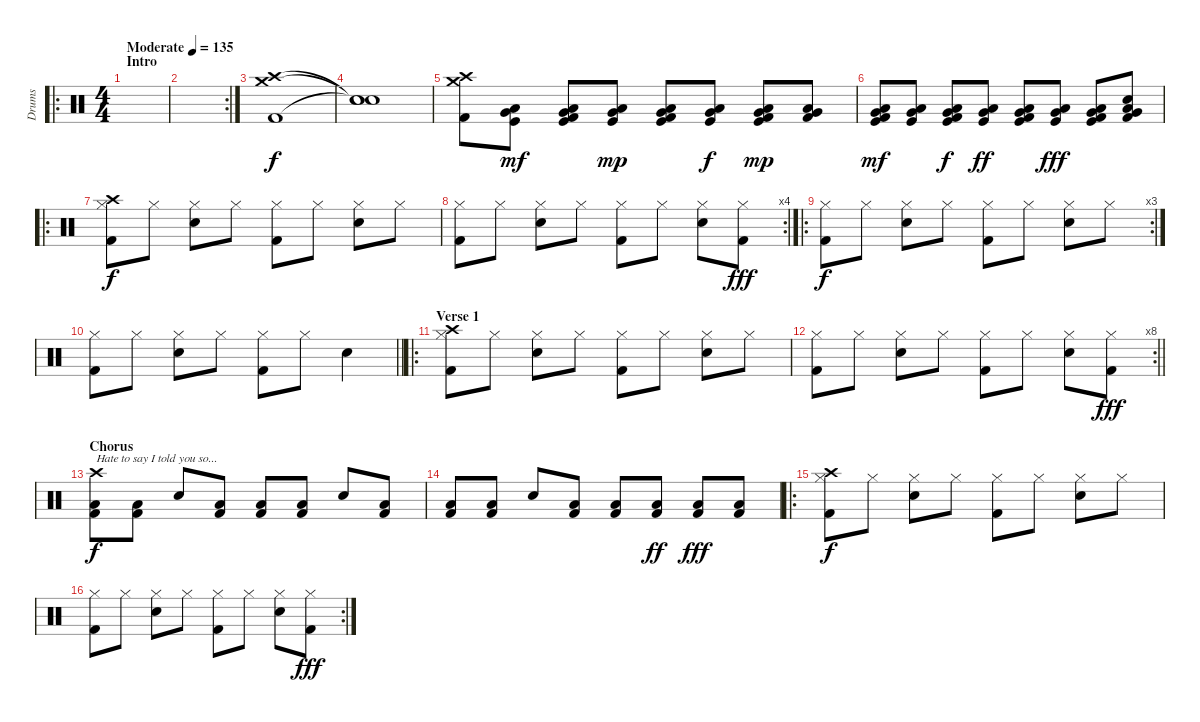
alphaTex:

\track ("Drums" "Drums") {instrument percussion}
\staff {score}
\articulation defaults
\ro
\ts (4 4)
\section ("" "Intro")
\tempo (135 "Moderate")
\clef neutral
\ks c
|
\rc 2
|
("Crash medium (hit)" "Crash high (hit)" "Kick (hit) 2").1 |
("Snare (hit)"{t} "Snare (hit)"{t} "Snare (hit)"{t}).1{dy f} |
("Crash medium (hit)" "Crash high (hit)" "Kick (hit) 2").8 ("Very Low Tom (hit)" "Low Floor Tom (hit)" "Kick (hit)").8{dy mf} ("Kick (hit)" "Very Low Tom (hit)" "Low Floor Tom (hit)" "Kick (hit) 2").8 ("Very Low Tom (hit)" "Low Floor Tom (hit)" "Kick (hit)").8{dy mp} ("Kick (hit)" "Very Low Tom (hit)" "Low Floor Tom (hit)" "Kick (hit) 2").8 ("Very Low Tom (hit)" "Low Floor Tom (hit)" "Kick (hit)").8{dy f} ("Kick (hit)" "Very Low Tom (hit)" "Low Floor Tom (hit)" "Kick (hit) 2").8{dy mp} ("Very Low Tom (hit)" "Low Floor Tom (hit)" "Kick (hit) 2").8 |
("Kick (hit)" "Very Low Tom (hit)" "Low Floor Tom (hit)" "Kick (hit) 2").8{dy mf} ("Very Low Tom (hit)" "Low Floor Tom (hit)" "Kick (hit)").8 ("Kick (hit)" "Very Low Tom (hit)" "Low Floor Tom (hit)" "Kick (hit) 2").8{dy f} ("Very Low Tom (hit)" "Low Floor Tom (hit)" "Kick (hit)").8{dy ff} ("Kick (hit)" "Very Low Tom (hit)" "Low Floor Tom (hit)" "Kick (hit) 2").8 ("Very Low Tom (hit)" "Low Floor Tom (hit)" "Kick (hit)").8{dy fff} ("Kick (hit)" "Very Low Tom (hit)" "Low Floor Tom (hit)" "Kick (hit) 2").8 ("Electric Snare (hit)" "Very Low Tom (hit)" "Low Floor Tom (hit)" "Kick (hit) 2").8 |
\ro
("Crash high (hit)" "Hi-Hat (closed)" "Kick (hit) 2").8{dy f} "Hi-Hat (closed)".8 ("Hi-Hat (closed)" "Electric Snare (hit)").8 "Hi-Hat (closed)".8 ("Hi-Hat (closed)" "Kick (hit) 2").8 "Hi-Hat (closed)".8 ("Hi-Hat (closed)" "Electric Snare (hit)").8 "Hi-Hat (closed)".8 |
\rc 4
("Hi-Hat (closed)" "Kick (hit) 2").8 "Hi-Hat (closed)".8 ("Hi-Hat (closed)" "Electric Snare (hit)").8 "Hi-Hat (closed)".8 ("Hi-Hat (closed)" "Kick (hit) 2").8 "Hi-Hat (closed)".8 ("Hi-Hat (closed)" "Electric Snare (hit)").8 ("Hi-Hat (closed)" "Kick (hit) 2").8{dy fff} |
\ro
\rc 3
("Hi-Hat (closed)" "Kick (hit) 2").8{dy f} "Hi-Hat (closed)".8 ("Hi-Hat (closed)" "Electric Snare (hit)").8 "Hi-Hat (closed)".8 ("Hi-Hat (closed)" "Kick (hit) 2").8 "Hi-Hat (closed)".8 ("Hi-Hat (closed)" "Electric Snare (hit)").8 "Hi-Hat (closed)".8 |
\barLineRight lightlight
("Hi-Hat (closed)" "Kick (hit) 2").8 "Hi-Hat (closed)".8 ("Hi-Hat (closed)" "Electric Snare (hit)").8 "Hi-Hat (closed)".8 ("Hi-Hat (closed)" "Kick (hit) 2").8 "Hi-Hat (closed)".8 "Electric Snare (hit)".4 |
\ro
\section ("" "Verse 1")
("Crash high (hit)" "Hi-Hat (closed)" "Kick (hit) 2").8 "Hi-Hat (closed)".8 ("Hi-Hat (closed)" "Electric Snare (hit)").8 "Hi-Hat (closed)".8 ("Hi-Hat (closed)" "Kick (hit) 2").8 "Hi-Hat (closed)".8 ("Hi-Hat (closed)" "Electric Snare (hit)").8 "Hi-Hat (closed)".8 |
\rc 8
\barLineRight lightlight
("Hi-Hat (closed)" "Kick (hit) 2").8 "Hi-Hat (closed)".8 ("Hi-Hat (closed)" "Electric Snare (hit)").8 "Hi-Hat (closed)".8 ("Hi-Hat (closed)" "Kick (hit) 2").8 "Hi-Hat (closed)".8 ("Hi-Hat (closed)" "Electric Snare (hit)").8 ("Hi-Hat (closed)" "Kick (hit) 2").8{dy fff} |
\section ("" "Chorus")
("Crash high (hit)" "Low Floor Tom (hit)" "Kick (hit) 2").8{txt "Hate to say I told you so..." dy f} ("Low Floor Tom (hit)" "Kick (hit) 2").8 "Electric Snare (hit)".8 ("Low Floor Tom (hit)" "Kick (hit) 2").8 ("Low Floor Tom (hit)" "Kick (hit) 2").8 ("Low Floor Tom (hit)" "Kick (hit) 2").8 "Electric Snare (hit)".8 ("Low Floor Tom (hit)" "Kick (hit) 2").8 |
("Low Floor Tom (hit)" "Kick (hit) 2").8 ("Low Floor Tom (hit)" "Kick (hit) 2").8 "Electric Snare (hit)".8 ("Low Floor Tom (hit)" "Kick (hit) 2").8 ("Low Floor Tom (hit)" "Kick (hit) 2").8 ("Low Floor Tom (hit)" "Kick (hit) 2").8{dy ff} ("Low Floor Tom (hit)" "Kick (hit) 2").8{dy fff} ("Low Floor Tom (hit)" "Kick (hit) 2").8 |
\ro
("Crash high (hit)" "Hi-Hat (closed)" "Kick (hit) 2").8{dy f} "Hi-Hat (closed)".8 ("Hi-Hat (closed)" "Electric Snare (hit)").8 "Hi-Hat (closed)".8 ("Hi-Hat (closed)" "Kick (hit) 2").8 "Hi-Hat (closed)".8 ("Hi-Hat (closed)" "Electric Snare (hit)").8 "Hi-Hat (closed)".8 |
\rc 2
("Hi-Hat (closed)" "Kick (hit) 2").8 "Hi-Hat (closed)".8 ("Hi-Hat (closed)" "Electric Snare (hit)").8 "Hi-Hat (closed)".8 ("Hi-Hat (closed)" "Kick (hit) 2").8 "Hi-Hat (closed)".8 ("Hi-Hat (closed)" "Electric Snare (hit)").8 ("Hi-Hat (closed)" "Kick (hit) 2").8{dy fff}
